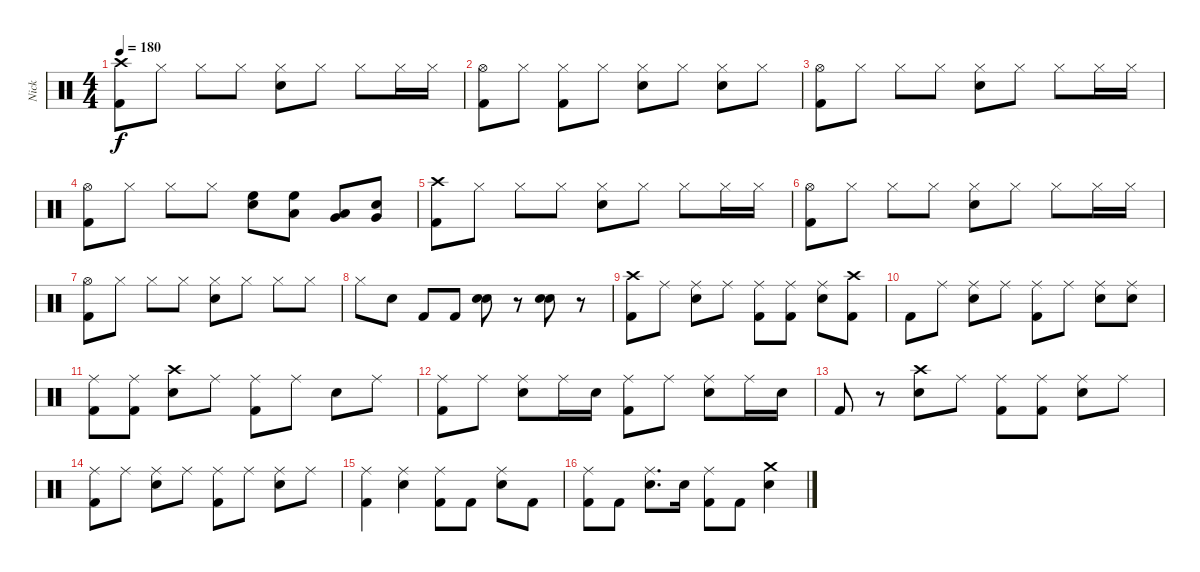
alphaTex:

\track ("Nick" "Nick") {instrument percussion}
\staff {score}
\articulation defaults
\ts (4 4)
\tempo 180
\clef neutral
\ks c
("Crash high (hit)" "Kick (hit) 2").8{dy f} "Hi-Hat (closed)".8 "Hi-Hat (closed)".8 "Hi-Hat (closed)".8 ("Hi-Hat (closed)" "Snare (hit) 2").8 "Hi-Hat (closed)".8 "Hi-Hat (closed)".8 "Hi-Hat (closed)".16 "Hi-Hat (closed)".16 |
("Hi-Hat (open)" "Kick (hit) 2").8 "Hi-Hat (closed)".8 ("Hi-Hat (closed)" "Kick (hit) 2").8 "Hi-Hat (closed)".8 ("Hi-Hat (closed)" "Snare (hit) 2").8 "Hi-Hat (closed)".8 ("Hi-Hat (closed)" "Snare (hit) 2").8 "Hi-Hat (closed)".8 |
("Hi-Hat (open)" "Kick (hit) 2").8 "Hi-Hat (closed)".8 "Hi-Hat (closed)".8 "Hi-Hat (closed)".8 ("Hi-Hat (closed)" "Snare (hit) 2").8 "Hi-Hat (closed)".8 "Hi-Hat (closed)".8 "Hi-Hat (closed)".16 "Hi-Hat (closed)".16 |
("Hi-Hat (open)" "Kick (hit) 2").8 "Hi-Hat (closed)".8 "Hi-Hat (closed)".8 "Hi-Hat (closed)".8 ("High Floor Tom (hit)" "Snare (hit) 2").8 ("High Floor Tom (hit)" "Low Tom (hit)").8 ("Low Tom (hit)" "Very Low Tom (hit)").8 ("Very Low Tom (hit)" "Snare (hit) 2").8 |
("Crash high (hit)" "Kick (hit) 2").8 "Hi-Hat (closed)".8 "Hi-Hat (closed)".8 "Hi-Hat (closed)".8 ("Hi-Hat (closed)" "Snare (hit) 2").8 "Hi-Hat (closed)".8 "Hi-Hat (closed)".8 "Hi-Hat (closed)".16 "Hi-Hat (closed)".16 |
("Hi-Hat (open)" "Kick (hit) 2").8 "Hi-Hat (closed)".8 "Hi-Hat (closed)".8 "Hi-Hat (closed)".8 ("Hi-Hat (closed)" "Snare (hit) 2").8 "Hi-Hat (closed)".8 "Hi-Hat (closed)".8 "Hi-Hat (closed)".16 "Hi-Hat (closed)".16 |
("Hi-Hat (open)" "Kick (hit) 2").8 "Hi-Hat (closed)".8 "Hi-Hat (closed)".8 "Hi-Hat (closed)".8 ("Hi-Hat (closed)" "Snare (hit) 2").8 "Hi-Hat (closed)".8 "Hi-Hat (closed)".8 "Hi-Hat (closed)".8 |
"Hi-Hat (closed)".8 "Snare (hit) 2".8 "Kick (hit) 2".8 "Kick (hit) 2".8 ("Snare (hit) 2" "Snare (hit) 2").8 r.8 ("Snare (hit) 2" "Snare (hit) 2").8 r.8 |
("Crash high (hit)" "Kick (hit) 2").8 "Ride (middle)".8 ("Ride (middle)" "Snare (hit) 2").8 "Ride (middle)".8 ("Ride (middle)" "Kick (hit) 2").8 ("Ride (middle)" "Kick (hit) 2").8 ("Ride (middle)" "Snare (hit) 2").8 ("Crash high (hit)" "Kick (hit) 2").8 |
"Kick (hit) 2".8 "Ride (middle)".8 ("Ride (middle)" "Snare (hit) 2").8 "Ride (middle)".8 ("Ride (middle)" "Kick (hit) 2").8 "Ride (middle)".8 ("Ride (middle)" "Snare (hit) 2").8 ("Ride (middle)" "Snare (hit) 2").8 |
("Ride (middle)" "Kick (hit) 2").8 ("Ride (middle)" "Kick (hit) 2").8 ("Crash high (hit)" "Snare (hit) 2").8 "Ride (middle)".8 ("Ride (middle)" "Kick (hit) 2").8 "Ride (middle)".8 "Snare (hit) 2".8 "Ride (middle)".8 |
("Ride (middle)" "Kick (hit) 2").8 "Ride (middle)".8 ("Ride (middle)" "Snare (hit) 2").8 "Ride (middle)".16 "Snare (hit) 2".16 ("Ride (middle)" "Kick (hit) 2").8 "Ride (middle)".8 ("Ride (middle)" "Snare (hit) 2").8 "Ride (middle)".16 "Snare (hit) 2".16 |
"Kick (hit) 2".8 r.8 ("Crash high (hit)" "Snare (hit) 2").8 "Ride (middle)".8 ("Ride (middle)" "Kick (hit) 2").8 ("Ride (middle)" "Kick (hit) 2").8 ("Ride (middle)" "Snare (hit) 2").8 "Ride (middle)".8 |
("Ride (middle)" "Kick (hit) 2").8 "Ride (middle)".8 ("Ride (middle)" "Snare (hit) 2").8 "Ride (middle)".8 ("Ride (middle)" "Kick (hit) 2").8 "Ride (middle)".8 ("Ride (middle)" "Snare (hit) 2").8 "Ride (middle)".8 |
("Ride (middle)" "Kick (hit) 2").4 ("Ride (middle)" "Snare (hit) 2").4 ("Ride (middle)" "Kick (hit) 2").8 "Kick (hit) 2".8 ("Ride (middle)" "Snare (hit) 2").8 "Kick (hit) 2".8 |
("Ride (middle)" "Kick (hit) 2").8 "Kick (hit) 2".8 ("Ride (middle)" "Snare (hit) 2").8{d} "Snare (hit) 2".16 ("Ride (middle)" "Kick (hit) 2").8 "Kick (hit) 2".8 ("Crash medium (hit)" "Snare (hit) 2").4
